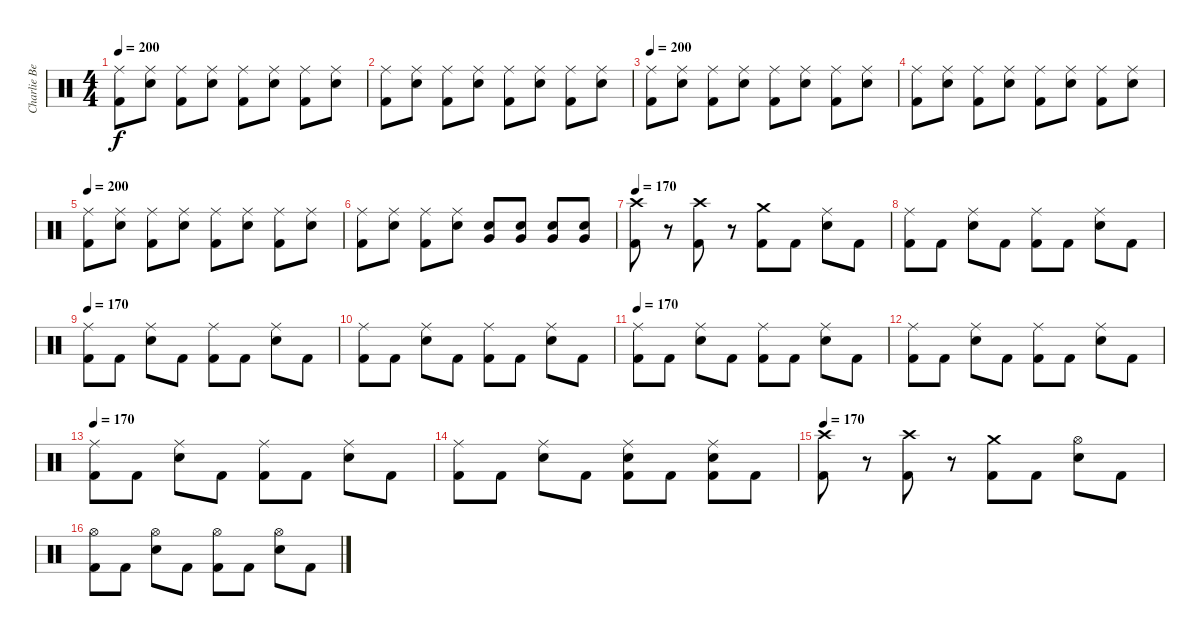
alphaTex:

\track ("Charlie Benante" "Charlie Be") {instrument percussion}
\staff {score}
\articulation defaults
\ts (4 4)
\tempo 200
\clef neutral
\ks c
("Ride (middle)" "Kick (hit) 2").8{dy f} ("Ride (middle)" "Electric Snare (hit)").8 ("Ride (middle)" "Kick (hit) 2").8 ("Ride (middle)" "Electric Snare (hit)").8 ("Ride (middle)" "Kick (hit) 2").8 ("Ride (middle)" "Electric Snare (hit)").8 ("Ride (middle)" "Kick (hit) 2").8 ("Ride (middle)" "Electric Snare (hit)").8 |
("Ride (middle)" "Kick (hit) 2").8 ("Ride (middle)" "Electric Snare (hit)").8 ("Ride (middle)" "Kick (hit) 2").8 ("Ride (middle)" "Electric Snare (hit)").8 ("Ride (middle)" "Kick (hit) 2").8 ("Ride (middle)" "Electric Snare (hit)").8 ("Ride (middle)" "Kick (hit) 2").8 ("Ride (middle)" "Electric Snare (hit)").8 |
\tempo 200
("Ride (middle)" "Kick (hit) 2").8 ("Ride (middle)" "Electric Snare (hit)").8 ("Ride (middle)" "Kick (hit) 2").8 ("Ride (middle)" "Electric Snare (hit)").8 ("Ride (middle)" "Kick (hit) 2").8 ("Ride (middle)" "Electric Snare (hit)").8 ("Ride (middle)" "Kick (hit) 2").8 ("Ride (middle)" "Electric Snare (hit)").8 |
("Ride (middle)" "Kick (hit) 2").8 ("Ride (middle)" "Electric Snare (hit)").8 ("Ride (middle)" "Kick (hit) 2").8 ("Ride (middle)" "Electric Snare (hit)").8 ("Ride (middle)" "Kick (hit) 2").8 ("Ride (middle)" "Electric Snare (hit)").8 ("Ride (middle)" "Kick (hit) 2").8 ("Ride (middle)" "Electric Snare (hit)").8 |
\tempo 200
("Ride (middle)" "Kick (hit) 2").8 ("Ride (middle)" "Electric Snare (hit)").8 ("Ride (middle)" "Kick (hit) 2").8 ("Ride (middle)" "Electric Snare (hit)").8 ("Ride (middle)" "Kick (hit) 2").8 ("Ride (middle)" "Electric Snare (hit)").8 ("Ride (middle)" "Kick (hit) 2").8 ("Ride (middle)" "Electric Snare (hit)").8 |
("Ride (middle)" "Kick (hit) 2").8 ("Ride (middle)" "Electric Snare (hit)").8 ("Ride (middle)" "Kick (hit) 2").8 ("Ride (middle)" "Electric Snare (hit)").8 ("Electric Snare (hit)" "Very Low Tom (hit)").8 ("Electric Snare (hit)" "Very Low Tom (hit)").8 ("Electric Snare (hit)" "Very Low Tom (hit)").8 ("Electric Snare (hit)" "Very Low Tom (hit)").8 |
\tempo 170
("Crash high (hit)" "Kick (hit) 2").8 r.8 ("Crash high (hit)" "Kick (hit) 2").8 r.8 ("Crash medium (hit)" "Kick (hit) 2").8 "Kick (hit) 2".8 ("Ride (middle)" "Electric Snare (hit)").8 "Kick (hit) 2".8 |
("Ride (middle)" "Kick (hit) 2").8 "Kick (hit) 2".8 ("Ride (middle)" "Electric Snare (hit)").8 "Kick (hit) 2".8 ("Ride (middle)" "Kick (hit) 2").8 "Kick (hit) 2".8 ("Ride (middle)" "Electric Snare (hit)").8 "Kick (hit) 2".8 |
\tempo 170
("Ride (middle)" "Kick (hit) 2").8 "Kick (hit) 2".8 ("Ride (middle)" "Electric Snare (hit)").8 "Kick (hit) 2".8 ("Ride (middle)" "Kick (hit) 2").8 "Kick (hit) 2".8 ("Ride (middle)" "Electric Snare (hit)").8 "Kick (hit) 2".8 |
("Ride (middle)" "Kick (hit) 2").8 "Kick (hit) 2".8 ("Ride (middle)" "Electric Snare (hit)").8 "Kick (hit) 2".8 ("Ride (middle)" "Kick (hit) 2").8 "Kick (hit) 2".8 ("Ride (middle)" "Electric Snare (hit)").8 "Kick (hit) 2".8 |
\tempo 170
("Ride (middle)" "Kick (hit) 2").8 "Kick (hit) 2".8 ("Ride (middle)" "Electric Snare (hit)").8 "Kick (hit) 2".8 ("Ride (middle)" "Kick (hit) 2").8 "Kick (hit) 2".8 ("Ride (middle)" "Electric Snare (hit)").8 "Kick (hit) 2".8 |
("Ride (middle)" "Kick (hit) 2").8 "Kick (hit) 2".8 ("Ride (middle)" "Electric Snare (hit)").8 "Kick (hit) 2".8 ("Ride (middle)" "Kick (hit) 2").8 "Kick (hit) 2".8 ("Ride (middle)" "Electric Snare (hit)").8 "Kick (hit) 2".8 |
\tempo 170
("Ride (middle)" "Kick (hit) 2").8 "Kick (hit) 2".8 ("Ride (middle)" "Electric Snare (hit)").8 "Kick (hit) 2".8 ("Ride (middle)" "Kick (hit) 2").8 "Kick (hit) 2".8 ("Ride (middle)" "Electric Snare (hit)").8 "Kick (hit) 2".8 |
("Ride (middle)" "Kick (hit) 2").8 "Kick (hit) 2".8 ("Ride (middle)" "Electric Snare (hit)").8 "Kick (hit) 2".8 ("Ride (middle)" "Electric Snare (hit)" "Kick (hit) 2").8 "Kick (hit) 2".8 ("Ride (middle)" "Electric Snare (hit)" "Kick (hit) 2").8 "Kick (hit) 2".8 |
\tempo 170
("Crash high (hit)" "Kick (hit) 2").8 r.8 ("Crash high (hit)" "Kick (hit) 2").8 r.8 ("Crash medium (hit)" "Kick (hit) 2").8 "Kick (hit) 2".8 ("Hi-Hat (open)" "Electric Snare (hit)").8 "Kick (hit) 2".8 |
("Hi-Hat (open)" "Kick (hit) 2").8 "Kick (hit) 2".8 ("Hi-Hat (open)" "Electric Snare (hit)").8 "Kick (hit) 2".8 ("Hi-Hat (open)" "Kick (hit) 2").8 "Kick (hit) 2".8 ("Hi-Hat (open)" "Electric Snare (hit)").8 "Kick (hit) 2".8
